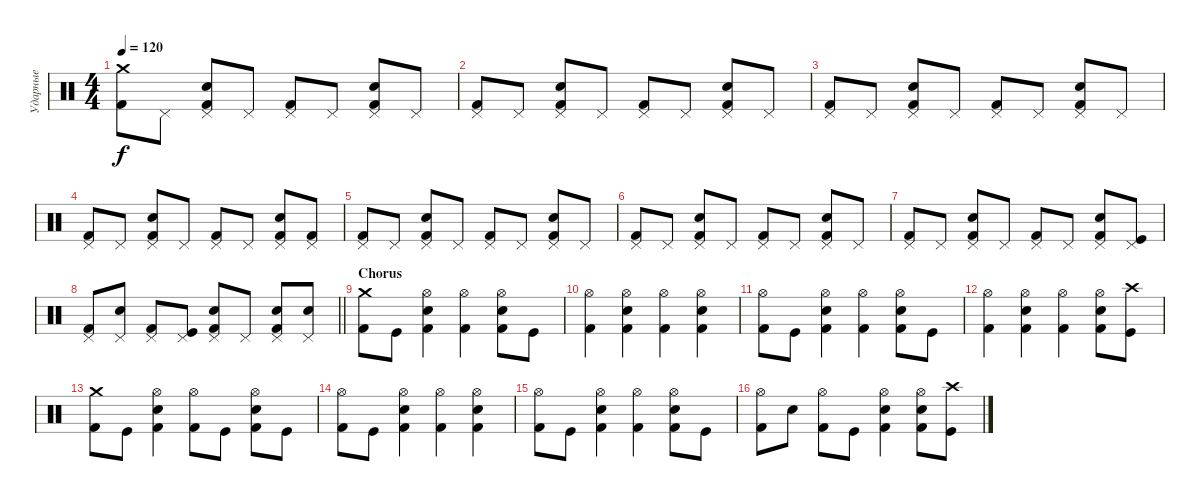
\track ("Ударные" "Ударные") {instrument percussion}
\staff {score}
\articulation defaults
\ts (4 4)
\tempo 120
\clef neutral
\ks c
("Crash medium (hit)" "Kick (hit) 2").8{dy f} "Pedal Hi-Hat (hit)".8 ("Pedal Hi-Hat (hit)" "Electric Snare (hit)" "Kick (hit) 2").8 "Pedal Hi-Hat (hit)".8 ("Pedal Hi-Hat (hit)" "Kick (hit) 2").8 "Pedal Hi-Hat (hit)".8 ("Pedal Hi-Hat (hit)" "Electric Snare (hit)" "Kick (hit) 2").8 "Pedal Hi-Hat (hit)".8 |
("Pedal Hi-Hat (hit)" "Kick (hit) 2").8 "Pedal Hi-Hat (hit)".8 ("Pedal Hi-Hat (hit)" "Electric Snare (hit)" "Kick (hit) 2").8 "Pedal Hi-Hat (hit)".8 ("Pedal Hi-Hat (hit)" "Kick (hit) 2").8 "Pedal Hi-Hat (hit)".8 ("Pedal Hi-Hat (hit)" "Electric Snare (hit)" "Kick (hit) 2").8 "Pedal Hi-Hat (hit)".8 |
("Pedal Hi-Hat (hit)" "Kick (hit) 2").8 "Pedal Hi-Hat (hit)".8 ("Pedal Hi-Hat (hit)" "Electric Snare (hit)" "Kick (hit) 2").8 "Pedal Hi-Hat (hit)".8 ("Pedal Hi-Hat (hit)" "Kick (hit) 2").8 "Pedal Hi-Hat (hit)".8 ("Pedal Hi-Hat (hit)" "Electric Snare (hit)" "Kick (hit) 2").8 "Pedal Hi-Hat (hit)".8 |
("Pedal Hi-Hat (hit)" "Kick (hit) 2").8 "Pedal Hi-Hat (hit)".8 ("Pedal Hi-Hat (hit)" "Electric Snare (hit)" "Kick (hit) 2").8 "Pedal Hi-Hat (hit)".8 ("Pedal Hi-Hat (hit)" "Kick (hit) 2").8 "Pedal Hi-Hat (hit)".8 ("Pedal Hi-Hat (hit)" "Electric Snare (hit)" "Kick (hit) 2").8 ("Pedal Hi-Hat (hit)" "Kick (hit) 2").8 |
("Pedal Hi-Hat (hit)" "Kick (hit) 2").8 "Pedal Hi-Hat (hit)".8 ("Pedal Hi-Hat (hit)" "Electric Snare (hit)" "Kick (hit) 2").8 "Pedal Hi-Hat (hit)".8 ("Pedal Hi-Hat (hit)" "Kick (hit) 2").8 "Pedal Hi-Hat (hit)".8 ("Pedal Hi-Hat (hit)" "Electric Snare (hit)" "Kick (hit) 2").8 "Pedal Hi-Hat (hit)".8 |
("Pedal Hi-Hat (hit)" "Kick (hit) 2").8 "Pedal Hi-Hat (hit)".8 ("Pedal Hi-Hat (hit)" "Electric Snare (hit)" "Kick (hit) 2").8 "Pedal Hi-Hat (hit)".8 ("Pedal Hi-Hat (hit)" "Kick (hit) 2").8 "Pedal Hi-Hat (hit)".8 ("Pedal Hi-Hat (hit)" "Electric Snare (hit)" "Kick (hit) 2").8 "Pedal Hi-Hat (hit)".8 |
("Pedal Hi-Hat (hit)" "Kick (hit) 2").8 "Pedal Hi-Hat (hit)".8 ("Pedal Hi-Hat (hit)" "Electric Snare (hit)" "Kick (hit) 2").8 "Pedal Hi-Hat (hit)".8 ("Pedal Hi-Hat (hit)" "Kick (hit) 2").8 "Pedal Hi-Hat (hit)".8 ("Pedal Hi-Hat (hit)" "Electric Snare (hit)" "Kick (hit) 2").8 ("Pedal Hi-Hat (hit)" "Kick (hit)").8 |
\barLineRight lightlight
("Pedal Hi-Hat (hit)" "Kick (hit) 2").8 ("Pedal Hi-Hat (hit)" "Electric Snare (hit)").8 ("Pedal Hi-Hat (hit)" "Kick (hit) 2").8 ("Pedal Hi-Hat (hit)" "Kick (hit)").8 ("Pedal Hi-Hat (hit)" "Electric Snare (hit)" "Kick (hit) 2").8 "Pedal Hi-Hat (hit)".8 ("Pedal Hi-Hat (hit)" "Electric Snare (hit)" "Kick (hit) 2").8 ("Pedal Hi-Hat (hit)" "Electric Snare (hit)").8 |
\section ("" "Chorus")
("Crash medium (hit)" "Kick (hit) 2").8 "Kick (hit)".8 ("Hi-Hat (open)" "Electric Snare (hit)" "Kick (hit) 2").4 ("Hi-Hat (open)" "Kick (hit) 2").4 ("Hi-Hat (open)" "Electric Snare (hit)" "Kick (hit) 2").8 "Kick (hit)".8 |
("Hi-Hat (open)" "Kick (hit) 2").4 ("Hi-Hat (open)" "Electric Snare (hit)" "Kick (hit) 2").4 ("Hi-Hat (open)" "Kick (hit) 2").4 ("Hi-Hat (open)" "Electric Snare (hit)" "Kick (hit) 2").4 |
("Hi-Hat (open)" "Kick (hit) 2").8 "Kick (hit)".8 ("Hi-Hat (open)" "Electric Snare (hit)" "Kick (hit) 2").4 ("Hi-Hat (open)" "Kick (hit) 2").4 ("Hi-Hat (open)" "Electric Snare (hit)" "Kick (hit) 2").8 "Kick (hit)".8 |
("Hi-Hat (open)" "Kick (hit) 2").4 ("Hi-Hat (open)" "Electric Snare (hit)" "Kick (hit) 2").4 ("Hi-Hat (open)" "Kick (hit) 2").4 ("Hi-Hat (open)" "Electric Snare (hit)" "Kick (hit) 2").8 ("Crash high (hit)" "Kick (hit)").8 |
("Crash medium (hit)" "Kick (hit) 2").8 "Kick (hit)".8 ("Hi-Hat (open)" "Electric Snare (hit)" "Kick (hit) 2").4 ("Hi-Hat (open)" "Kick (hit) 2").8 "Kick (hit)".8 ("Hi-Hat (open)" "Electric Snare (hit)" "Kick (hit) 2").8 "Kick (hit)".8 |
("Hi-Hat (open)" "Kick (hit) 2").8 "Kick (hit)".8 ("Hi-Hat (open)" "Electric Snare (hit)" "Kick (hit) 2").4 ("Hi-Hat (open)" "Kick (hit) 2").4 ("Hi-Hat (open)" "Electric Snare (hit)" "Kick (hit) 2").4 |
("Hi-Hat (open)" "Kick (hit) 2").8 "Kick (hit)".8 ("Hi-Hat (open)" "Electric Snare (hit)" "Kick (hit) 2").4 ("Hi-Hat (open)" "Kick (hit) 2").4 ("Hi-Hat (open)" "Electric Snare (hit)" "Kick (hit) 2").8 "Kick (hit)".8 |
("Hi-Hat (open)" "Kick (hit) 2").8 "Electric Snare (hit)".8 ("Hi-Hat (open)" "Kick (hit) 2").8 "Kick (hit)".8 ("Hi-Hat (open)" "Electric Snare (hit)" "Kick (hit) 2").4 ("Hi-Hat (open)" "Electric Snare (hit)" "Kick (hit) 2").8 ("Crash high (hit)" "Kick (hit)").8
